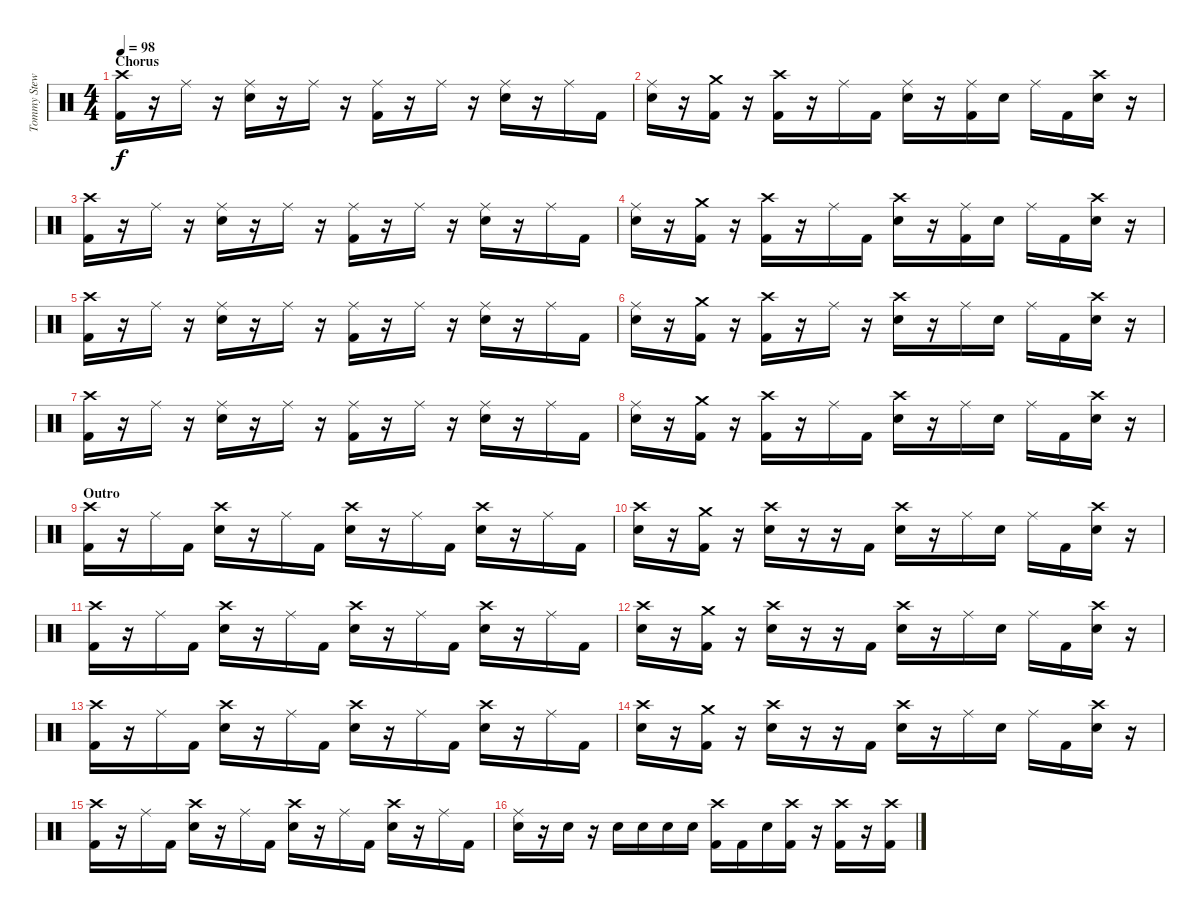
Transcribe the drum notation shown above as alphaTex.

\track ("Tommy Stewart - Drums" "Tommy Stew") {instrument percussion}
\staff {score}
\articulation defaults
\ts (4 4)
\section ("" "Chorus")
\tempo 98
\clef neutral
\ks c
("Crash high (hit)" "Kick (hit) 2").16{dy f} r.16 "Ride (middle)".16 r.16 ("Ride (middle)" "Snare (hit) 2").16 r.16 "Ride (middle)".16 r.16 ("Ride (middle)" "Kick (hit) 2").16 r.16 "Ride (middle)".16 r.16 ("Ride (middle)" "Snare (hit) 2").16 r.16 "Ride (middle)".16 "Kick (hit) 2".16 |
("Ride (middle)" "Snare (hit) 2").16 r.16 ("Crash medium (hit)" "Kick (hit) 2").16 r.16 ("Crash high (hit)" "Kick (hit) 2").16 r.16 "Ride (middle)".16 "Kick (hit) 2".16 ("Ride (middle)" "Snare (hit) 2").16 r.16 ("Ride (middle)" "Kick (hit) 2").16 "Snare (hit) 2".16 "Ride (middle)".16 "Kick (hit) 2".16 ("Crash high (hit)" "Snare (hit) 2").16 r.16 |
("Crash high (hit)" "Kick (hit) 2").16 r.16 "Ride (middle)".16 r.16 ("Ride (middle)" "Snare (hit) 2").16 r.16 "Ride (middle)".16 r.16 ("Ride (middle)" "Kick (hit) 2").16 r.16 "Ride (middle)".16 r.16 ("Ride (middle)" "Snare (hit) 2").16 r.16 "Ride (middle)".16 "Kick (hit) 2".16 |
("Ride (middle)" "Snare (hit) 2").16 r.16 ("Crash medium (hit)" "Kick (hit) 2").16 r.16 ("Crash high (hit)" "Kick (hit) 2").16 r.16 "Ride (middle)".16 "Kick (hit) 2".16 ("Crash high (hit)" "Snare (hit) 2").16 r.16 ("Ride (middle)" "Kick (hit) 2").16 "Snare (hit) 2".16 "Ride (middle)".16 "Kick (hit) 2".16 ("Crash high (hit)" "Snare (hit) 2").16 r.16 |
("Crash high (hit)" "Kick (hit) 2").16 r.16 "Ride (middle)".16 r.16 ("Ride (middle)" "Snare (hit) 2").16 r.16 "Ride (middle)".16 r.16 ("Ride (middle)" "Kick (hit) 2").16 r.16 "Ride (middle)".16 r.16 ("Ride (middle)" "Snare (hit) 2").16 r.16 "Ride (middle)".16 "Kick (hit) 2".16 |
("Ride (middle)" "Snare (hit) 2").16 r.16 ("Crash medium (hit)" "Kick (hit) 2").16 r.16 ("Crash high (hit)" "Kick (hit) 2").16 r.16 "Ride (middle)".16 r.16 ("Crash high (hit)" "Snare (hit) 2").16 r.16 "Ride (middle)".16 "Snare (hit) 2".16 "Ride (middle)".16 "Kick (hit) 2".16 ("Crash high (hit)" "Snare (hit) 2").16 r.16 |
("Crash high (hit)" "Kick (hit) 2").16 r.16 "Ride (middle)".16 r.16 ("Ride (middle)" "Snare (hit) 2").16 r.16 "Ride (middle)".16 r.16 ("Ride (middle)" "Kick (hit) 2").16 r.16 "Ride (middle)".16 r.16 ("Ride (middle)" "Snare (hit) 2").16 r.16 "Ride (middle)".16 "Kick (hit) 2".16 |
("Ride (middle)" "Snare (hit) 2").16 r.16 ("Crash medium (hit)" "Kick (hit) 2").16 r.16 ("Crash high (hit)" "Kick (hit) 2").16 r.16 "Ride (middle)".16 "Kick (hit) 2".16 ("Crash high (hit)" "Snare (hit) 2").16 r.16 "Ride (middle)".16 "Snare (hit) 2".16 "Ride (middle)".16 "Kick (hit) 2".16 ("Crash high (hit)" "Snare (hit) 2").16 r.16 |
\section ("" "Outro")
("Crash high (hit)" "Kick (hit) 2").16 r.16 "Ride (middle)".16 "Kick (hit) 2".16 ("Crash high (hit)" "Snare (hit) 2").16 r.16 "Ride (middle)".16 "Kick (hit) 2".16 ("Crash high (hit)" "Snare (hit) 2").16 r.16 "Ride (middle)".16 "Kick (hit) 2".16 ("Crash high (hit)" "Snare (hit) 2").16 r.16 "Ride (middle)".16 "Kick (hit) 2".16 |
("Crash high (hit)" "Snare (hit) 2").16 r.16 ("Crash medium (hit)" "Kick (hit) 2").16 r.16 ("Crash high (hit)" "Snare (hit) 2").16 r.16 r.16 "Kick (hit) 2".16 ("Crash high (hit)" "Snare (hit) 2").16 r.16 "Ride (middle)".16 "Snare (hit) 2".16 "Ride (middle)".16 "Kick (hit) 2".16 ("Crash high (hit)" "Snare (hit) 2").16 r.16 |
("Crash high (hit)" "Kick (hit) 2").16 r.16 "Ride (middle)".16 "Kick (hit) 2".16 ("Crash high (hit)" "Snare (hit) 2").16 r.16 "Ride (middle)".16 "Kick (hit) 2".16 ("Crash high (hit)" "Snare (hit) 2").16 r.16 "Ride (middle)".16 "Kick (hit) 2".16 ("Crash high (hit)" "Snare (hit) 2").16 r.16 "Ride (middle)".16 "Kick (hit) 2".16 |
("Crash high (hit)" "Snare (hit) 2").16 r.16 ("Crash medium (hit)" "Kick (hit) 2").16 r.16 ("Crash high (hit)" "Snare (hit) 2").16 r.16 r.16 "Kick (hit) 2".16 ("Crash high (hit)" "Snare (hit) 2").16 r.16 "Ride (middle)".16 "Snare (hit) 2".16 "Ride (middle)".16 "Kick (hit) 2".16 ("Crash high (hit)" "Snare (hit) 2").16 r.16 |
("Crash high (hit)" "Kick (hit) 2").16 r.16 "Ride (middle)".16 "Kick (hit) 2".16 ("Crash high (hit)" "Snare (hit) 2").16 r.16 "Ride (middle)".16 "Kick (hit) 2".16 ("Crash high (hit)" "Snare (hit) 2").16 r.16 "Ride (middle)".16 "Kick (hit) 2".16 ("Crash high (hit)" "Snare (hit) 2").16 r.16 "Ride (middle)".16 "Kick (hit) 2".16 |
("Crash high (hit)" "Snare (hit) 2").16 r.16 ("Crash medium (hit)" "Kick (hit) 2").16 r.16 ("Crash high (hit)" "Snare (hit) 2").16 r.16 r.16 "Kick (hit) 2".16 ("Crash high (hit)" "Snare (hit) 2").16 r.16 "Ride (middle)".16 "Snare (hit) 2".16 "Ride (middle)".16 "Kick (hit) 2".16 ("Crash high (hit)" "Snare (hit) 2").16 r.16 |
("Crash high (hit)" "Kick (hit) 2").16 r.16 "Ride (middle)".16 "Kick (hit) 2".16 ("Crash high (hit)" "Snare (hit) 2").16 r.16 "Ride (middle)".16 "Kick (hit) 2".16 ("Crash high (hit)" "Snare (hit) 2").16 r.16 "Ride (middle)".16 "Kick (hit) 2".16 ("Crash high (hit)" "Snare (hit) 2").16 r.16 "Ride (middle)".16 "Kick (hit) 2".16 |
("Ride (middle)" "Snare (hit) 2").16 r.16 "Snare (hit) 2".16 r.16 "Snare (hit) 2".16 "Snare (hit) 2".16 "Snare (hit) 2".16 "Snare (hit) 2".16 ("Crash high (hit)" "Kick (hit) 2").16 "Kick (hit) 2".16 "Snare (hit) 2".16 ("Crash high (hit)" "Kick (hit) 2").16 r.16 ("Crash high (hit)" "Kick (hit) 2").16 r.16 ("Crash high (hit)" "Kick (hit) 2").16
